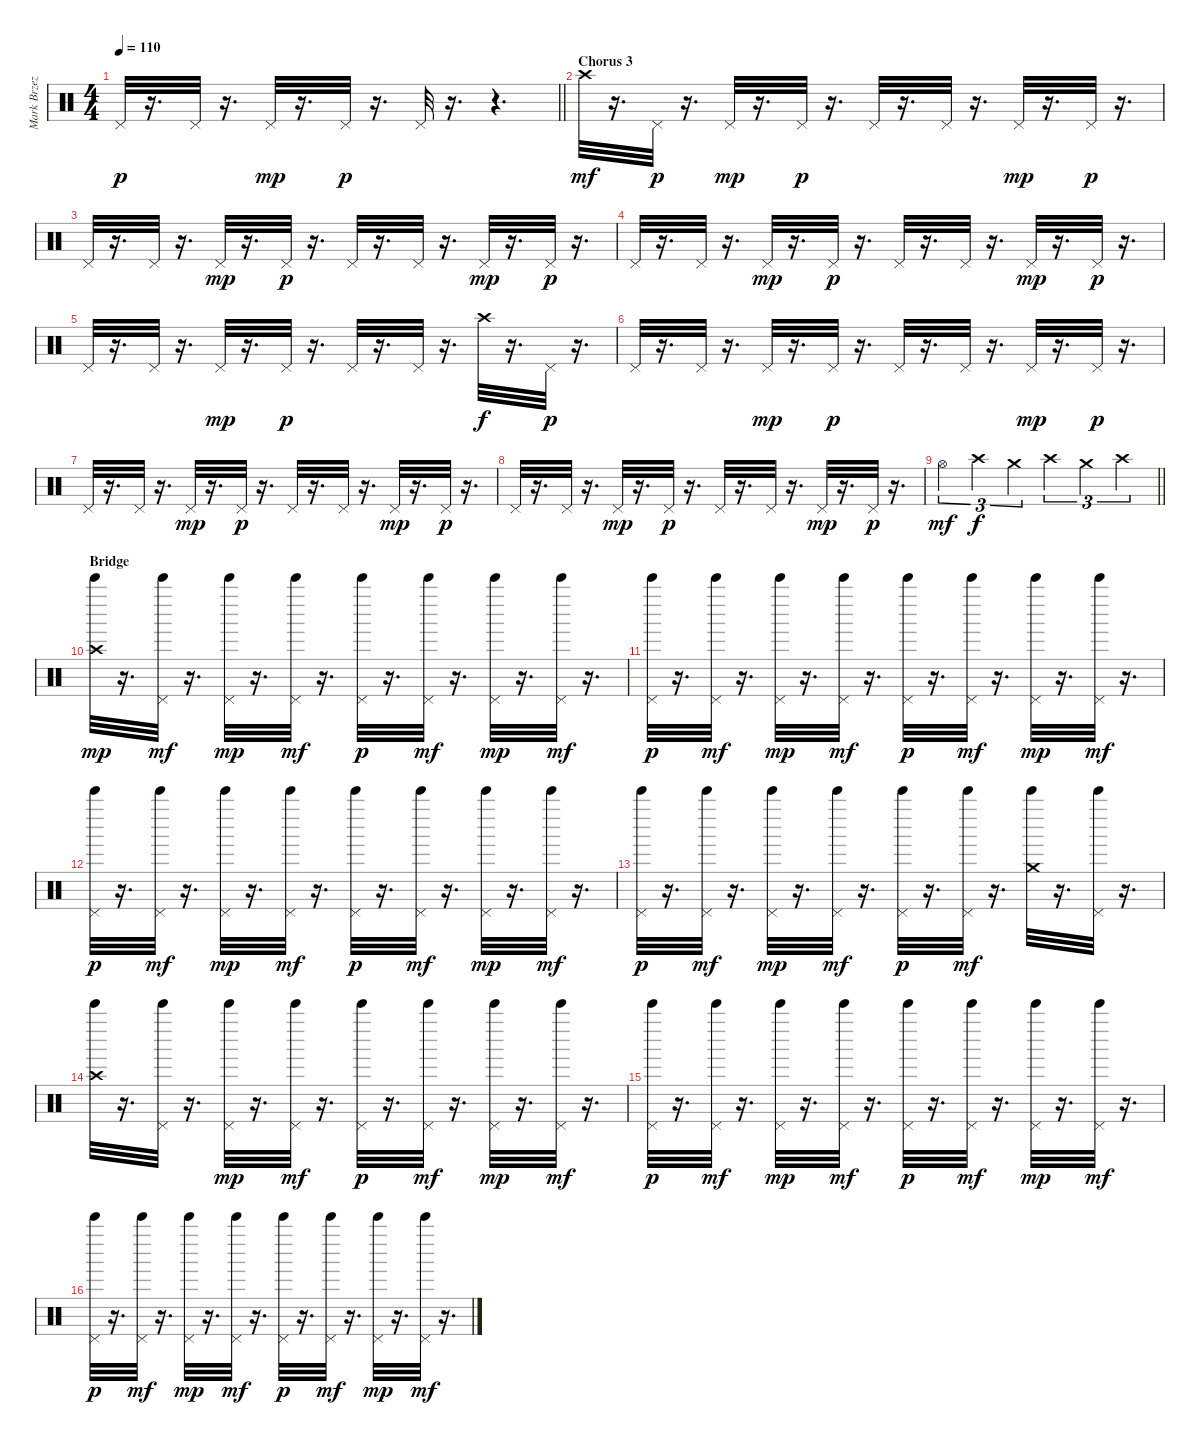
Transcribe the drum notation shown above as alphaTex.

\track ("Mark Brzezicki - Cymbal (Crash, Open & C" "Mark Brzez") {instrument percussion}
\staff {score}
\articulation defaults
\ts (4 4)
\tempo 110
\clef neutral
\barLineRight lightlight
\ks c "Pedal Hi-Hat (hit)".32{dy p}
r.16{d} "Pedal Hi-Hat (hit)".32 r.16{d} "Pedal Hi-Hat (hit)".32{dy mp} r.16{d} "Pedal Hi-Hat (hit)".32{dy p} r.16{d} "Pedal Hi-Hat (hit)".32 r.16{d} r.4{d} |
\section ("" "Chorus 3")
"Crash high (hit)".32{dy mf} r.16{d} "Pedal Hi-Hat (hit)".32{dy p} r.16{d} "Pedal Hi-Hat (hit)".32{dy mp} r.16{d} "Pedal Hi-Hat (hit)".32{dy p} r.16{d} "Pedal Hi-Hat (hit)".32 r.16{d} "Pedal Hi-Hat (hit)".32 r.16{d} "Pedal Hi-Hat (hit)".32{dy mp} r.16{d} "Pedal Hi-Hat (hit)".32{dy p} r.16{d} |
"Pedal Hi-Hat (hit)".32 r.16{d} "Pedal Hi-Hat (hit)".32 r.16{d} "Pedal Hi-Hat (hit)".32{dy mp} r.16{d} "Pedal Hi-Hat (hit)".32{dy p} r.16{d} "Pedal Hi-Hat (hit)".32 r.16{d} "Pedal Hi-Hat (hit)".32 r.16{d} "Pedal Hi-Hat (hit)".32{dy mp} r.16{d} "Pedal Hi-Hat (hit)".32{dy p} r.16{d} |
"Pedal Hi-Hat (hit)".32 r.16{d} "Pedal Hi-Hat (hit)".32 r.16{d} "Pedal Hi-Hat (hit)".32{dy mp} r.16{d} "Pedal Hi-Hat (hit)".32{dy p} r.16{d} "Pedal Hi-Hat (hit)".32 r.16{d} "Pedal Hi-Hat (hit)".32 r.16{d} "Pedal Hi-Hat (hit)".32{dy mp} r.16{d} "Pedal Hi-Hat (hit)".32{dy p} r.16{d} |
"Pedal Hi-Hat (hit)".32 r.16{d} "Pedal Hi-Hat (hit)".32 r.16{d} "Pedal Hi-Hat (hit)".32{dy mp} r.16{d} "Pedal Hi-Hat (hit)".32{dy p} r.16{d} "Pedal Hi-Hat (hit)".32 r.16{d} "Pedal Hi-Hat (hit)".32 r.16{d} "Crash high (hit)".32{dy f} r.16{d} "Pedal Hi-Hat (hit)".32{dy p} r.16{d} |
"Pedal Hi-Hat (hit)".32 r.16{d} "Pedal Hi-Hat (hit)".32 r.16{d} "Pedal Hi-Hat (hit)".32{dy mp} r.16{d} "Pedal Hi-Hat (hit)".32{dy p} r.16{d} "Pedal Hi-Hat (hit)".32 r.16{d} "Pedal Hi-Hat (hit)".32 r.16{d} "Pedal Hi-Hat (hit)".32{dy mp} r.16{d} "Pedal Hi-Hat (hit)".32{dy p} r.16{d} |
"Pedal Hi-Hat (hit)".32 r.16{d} "Pedal Hi-Hat (hit)".32 r.16{d} "Pedal Hi-Hat (hit)".32{dy mp} r.16{d} "Pedal Hi-Hat (hit)".32{dy p} r.16{d} "Pedal Hi-Hat (hit)".32 r.16{d} "Pedal Hi-Hat (hit)".32 r.16{d} "Pedal Hi-Hat (hit)".32{dy mp} r.16{d} "Pedal Hi-Hat (hit)".32{dy p} r.16{d} |
"Pedal Hi-Hat (hit)".32 r.16{d} "Pedal Hi-Hat (hit)".32 r.16{d} "Pedal Hi-Hat (hit)".32{dy mp} r.16{d} "Pedal Hi-Hat (hit)".32{dy p} r.16{d} "Pedal Hi-Hat (hit)".32 r.16{d} "Pedal Hi-Hat (hit)".32 r.16{d} "Pedal Hi-Hat (hit)".32{dy mp} r.16{d} "Pedal Hi-Hat (hit)".32{dy p} r.16{d} |
\barLineRight lightlight "Hi-Hat (open)".4{tu (3 2) dy mf} "Crash high (hit)".4{tu (3 2) dy f} "Crash medium (hit)".4{tu (3 2)} "Crash high (hit)".4{tu (3 2)} "Crash medium (hit)".4{tu (3 2)} "Crash high (hit)".4{tu (3 2)}
|
\section ("" "Bridge")
("Crash high (hit)" "Bell Tree (hit)").32{dy mp} r.16{d} ("Pedal Hi-Hat (hit)" "Bell Tree (hit)").32{dy mf} r.16{d} ("Pedal Hi-Hat (hit)" "Bell Tree (hit)").32{dy mp} r.16{d} ("Pedal Hi-Hat (hit)" "Bell Tree (hit)").32{dy mf} r.16{d} ("Pedal Hi-Hat (hit)" "Bell Tree (hit)").32{dy p} r.16{d} ("Pedal Hi-Hat (hit)" "Bell Tree (hit)").32{dy mf} r.16{d} ("Pedal Hi-Hat (hit)" "Bell Tree (hit)").32{dy mp} r.16{d} ("Pedal Hi-Hat (hit)" "Bell Tree (hit)").32{dy mf} r.16{d} |
("Pedal Hi-Hat (hit)" "Bell Tree (hit)").32{dy p} r.16{d} ("Pedal Hi-Hat (hit)" "Bell Tree (hit)").32{dy mf} r.16{d} ("Pedal Hi-Hat (hit)" "Bell Tree (hit)").32{dy mp} r.16{d} ("Pedal Hi-Hat (hit)" "Bell Tree (hit)").32{dy mf} r.16{d} ("Pedal Hi-Hat (hit)" "Bell Tree (hit)").32{dy p} r.16{d} ("Pedal Hi-Hat (hit)" "Bell Tree (hit)").32{dy mf} r.16{d} ("Pedal Hi-Hat (hit)" "Bell Tree (hit)").32{dy mp} r.16{d} ("Pedal Hi-Hat (hit)" "Bell Tree (hit)").32{dy mf} r.16{d} |
("Pedal Hi-Hat (hit)" "Bell Tree (hit)").32{dy p} r.16{d} ("Pedal Hi-Hat (hit)" "Bell Tree (hit)").32{dy mf} r.16{d} ("Pedal Hi-Hat (hit)" "Bell Tree (hit)").32{dy mp} r.16{d} ("Pedal Hi-Hat (hit)" "Bell Tree (hit)").32{dy mf} r.16{d} ("Pedal Hi-Hat (hit)" "Bell Tree (hit)").32{dy p} r.16{d} ("Pedal Hi-Hat (hit)" "Bell Tree (hit)").32{dy mf} r.16{d} ("Pedal Hi-Hat (hit)" "Bell Tree (hit)").32{dy mp} r.16{d} ("Pedal Hi-Hat (hit)" "Bell Tree (hit)").32{dy mf} r.16{d} |
("Pedal Hi-Hat (hit)" "Bell Tree (hit)").32{dy p} r.16{d} ("Pedal Hi-Hat (hit)" "Bell Tree (hit)").32{dy mf} r.16{d} ("Pedal Hi-Hat (hit)" "Bell Tree (hit)").32{dy mp} r.16{d} ("Pedal Hi-Hat (hit)" "Bell Tree (hit)").32{dy mf} r.16{d} ("Pedal Hi-Hat (hit)" "Bell Tree (hit)").32{dy p} r.16{d} ("Pedal Hi-Hat (hit)" "Bell Tree (hit)").32{dy mf} r.16{d} ("Crash medium (hit)" "Bell Tree (hit)").32 r.16{d} ("Pedal Hi-Hat (hit)" "Bell Tree (hit)").32 r.16{d} |
("Crash high (hit)" "Bell Tree (hit)").32 r.16{d} ("Pedal Hi-Hat (hit)" "Bell Tree (hit)").32 r.16{d} ("Pedal Hi-Hat (hit)" "Bell Tree (hit)").32{dy mp} r.16{d} ("Pedal Hi-Hat (hit)" "Bell Tree (hit)").32{dy mf} r.16{d} ("Pedal Hi-Hat (hit)" "Bell Tree (hit)").32{dy p} r.16{d} ("Pedal Hi-Hat (hit)" "Bell Tree (hit)").32{dy mf} r.16{d} ("Pedal Hi-Hat (hit)" "Bell Tree (hit)").32{dy mp} r.16{d} ("Pedal Hi-Hat (hit)" "Bell Tree (hit)").32{dy mf} r.16{d} |
("Pedal Hi-Hat (hit)" "Bell Tree (hit)").32{dy p} r.16{d} ("Pedal Hi-Hat (hit)" "Bell Tree (hit)").32{dy mf} r.16{d} ("Pedal Hi-Hat (hit)" "Bell Tree (hit)").32{dy mp} r.16{d} ("Pedal Hi-Hat (hit)" "Bell Tree (hit)").32{dy mf} r.16{d} ("Pedal Hi-Hat (hit)" "Bell Tree (hit)").32{dy p} r.16{d} ("Pedal Hi-Hat (hit)" "Bell Tree (hit)").32{dy mf} r.16{d} ("Pedal Hi-Hat (hit)" "Bell Tree (hit)").32{dy mp} r.16{d} ("Pedal Hi-Hat (hit)" "Bell Tree (hit)").32{dy mf} r.16{d} |
("Pedal Hi-Hat (hit)" "Bell Tree (hit)").32{dy p} r.16{d} ("Pedal Hi-Hat (hit)" "Bell Tree (hit)").32{dy mf} r.16{d} ("Pedal Hi-Hat (hit)" "Bell Tree (hit)").32{dy mp} r.16{d} ("Pedal Hi-Hat (hit)" "Bell Tree (hit)").32{dy mf} r.16{d} ("Pedal Hi-Hat (hit)" "Bell Tree (hit)").32{dy p} r.16{d} ("Pedal Hi-Hat (hit)" "Bell Tree (hit)").32{dy mf} r.16{d} ("Pedal Hi-Hat (hit)" "Bell Tree (hit)").32{dy mp} r.16{d} ("Pedal Hi-Hat (hit)" "Bell Tree (hit)").32{dy mf} r.16{d}
